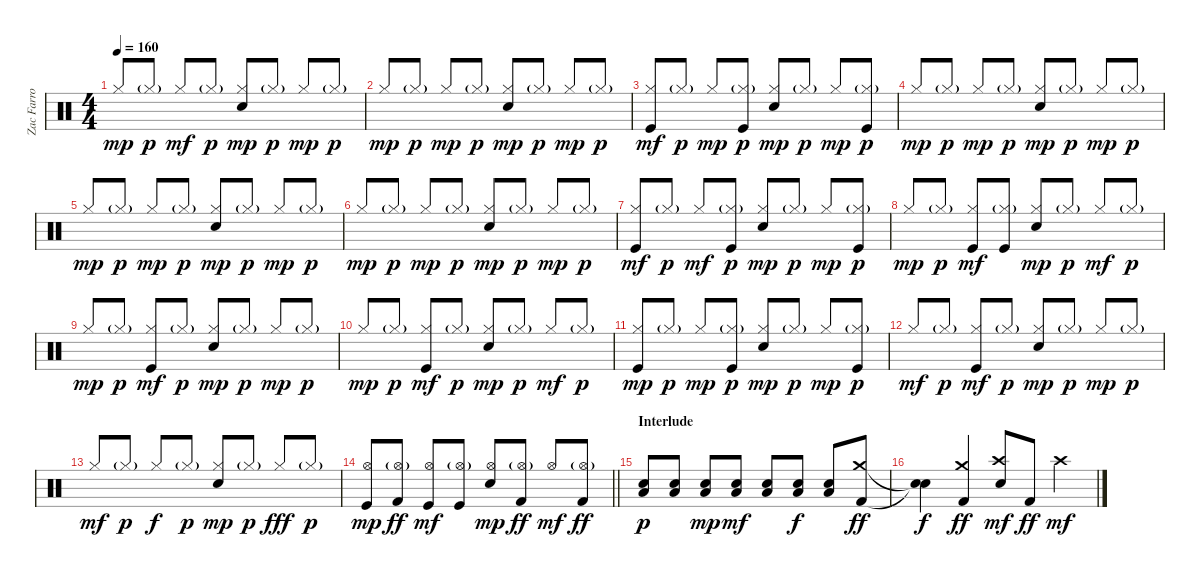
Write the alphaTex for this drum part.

\track ("Zac Farro" "Zac Farro") {instrument percussion}
\staff {score}
\articulation defaults
\ts (4 4)
\tempo 160
\clef neutral
\ks c "Hi-Hat (closed)".8{dy mp beam Up} "Hi-Hat (closed)"{g}.8{dy p beam Up} "Hi-Hat (closed)".8{dy mf beam Up} "Hi-Hat (closed)"{g}.8{dy p beam Up}
("Hi-Hat (closed)" "Electric Snare (hit)").8{dy mp beam Up} "Hi-Hat (closed)"{g}.8{dy p beam Up} "Hi-Hat (closed)".8{dy mp beam Up} "Hi-Hat (closed)"{g}.8{dy p beam Up} |
"Hi-Hat (closed)".8{dy mp beam Up} "Hi-Hat (closed)"{g}.8{dy p beam Up} "Hi-Hat (closed)".8{dy mp beam Up} "Hi-Hat (closed)"{g}.8{dy p beam Up} ("Hi-Hat (closed)" "Electric Snare (hit)").8{dy mp beam Up} "Hi-Hat (closed)"{g}.8{dy p beam Up} "Hi-Hat (closed)".8{dy mp beam Up} "Hi-Hat (closed)"{g}.8{dy p beam Up} |
("Hi-Hat (closed)" "Kick (hit)").8{dy mf beam Up} "Hi-Hat (closed)"{g}.8{dy p beam Up} "Hi-Hat (closed)".8{dy mp beam Up} ("Hi-Hat (closed)"{g} "Kick (hit)").8{dy p beam Up} ("Hi-Hat (closed)" "Electric Snare (hit)").8{dy mp beam Up} "Hi-Hat (closed)"{g}.8{dy p beam Up} "Hi-Hat (closed)".8{dy mp beam Up} ("Hi-Hat (closed)"{g} "Kick (hit)").8{dy p beam Up} |
"Hi-Hat (closed)".8{dy mp beam Up} "Hi-Hat (closed)"{g}.8{dy p beam Up} "Hi-Hat (closed)".8{dy mp beam Up} "Hi-Hat (closed)"{g}.8{dy p beam Up} ("Hi-Hat (closed)" "Electric Snare (hit)").8{dy mp beam Up} "Hi-Hat (closed)"{g}.8{dy p beam Up} "Hi-Hat (closed)".8{dy mp beam Up} "Hi-Hat (closed)"{g}.8{dy p beam Up} |
"Hi-Hat (closed)".8{dy mp beam Up} "Hi-Hat (closed)"{g}.8{dy p beam Up} "Hi-Hat (closed)".8{dy mp beam Up} "Hi-Hat (closed)"{g}.8{dy p beam Up} ("Hi-Hat (closed)" "Electric Snare (hit)").8{dy mp beam Up} "Hi-Hat (closed)"{g}.8{dy p beam Up} "Hi-Hat (closed)".8{dy mp beam Up} "Hi-Hat (closed)"{g}.8{dy p beam Up} |
"Hi-Hat (closed)".8{dy mp beam Up} "Hi-Hat (closed)"{g}.8{dy p beam Up} "Hi-Hat (closed)".8{dy mp beam Up} "Hi-Hat (closed)"{g}.8{dy p beam Up} ("Hi-Hat (closed)" "Electric Snare (hit)").8{dy mp beam Up} "Hi-Hat (closed)"{g}.8{dy p beam Up} "Hi-Hat (closed)".8{dy mp beam Up} "Hi-Hat (closed)"{g}.8{dy p beam Up} |
("Hi-Hat (closed)" "Kick (hit)").8{dy mf beam Up} "Hi-Hat (closed)"{g}.8{dy p beam Up} "Hi-Hat (closed)".8{dy mf beam Up} ("Hi-Hat (closed)"{g} "Kick (hit)").8{dy p beam Up} ("Hi-Hat (closed)" "Electric Snare (hit)").8{dy mp beam Up} "Hi-Hat (closed)"{g}.8{dy p beam Up} "Hi-Hat (closed)".8{dy mp beam Up} ("Hi-Hat (closed)"{g} "Kick (hit)").8{dy p beam Up} |
"Hi-Hat (closed)".8{dy mp beam Up} "Hi-Hat (closed)"{g}.8{dy p beam Up} ("Hi-Hat (closed)" "Kick (hit)").8{dy mf beam Up} ("Hi-Hat (closed)"{g} "Kick (hit)").8{beam Up} ("Hi-Hat (closed)" "Electric Snare (hit)").8{dy mp beam Up} "Hi-Hat (closed)"{g}.8{dy p beam Up} "Hi-Hat (closed)".8{dy mf beam Up} "Hi-Hat (closed)"{g}.8{dy p beam Up} |
"Hi-Hat (closed)".8{dy mp beam Up} "Hi-Hat (closed)"{g}.8{dy p beam Up} ("Hi-Hat (closed)" "Kick (hit)").8{dy mf beam Up} "Hi-Hat (closed)"{g}.8{dy p beam Up} ("Hi-Hat (closed)" "Electric Snare (hit)").8{dy mp beam Up} "Hi-Hat (closed)"{g}.8{dy p beam Up} "Hi-Hat (closed)".8{dy mp beam Up} "Hi-Hat (closed)"{g}.8{dy p beam Up} |
"Hi-Hat (closed)".8{dy mp beam Up} "Hi-Hat (closed)"{g}.8{dy p beam Up} ("Hi-Hat (closed)" "Kick (hit)").8{dy mf beam Up} "Hi-Hat (closed)"{g}.8{dy p beam Up} ("Hi-Hat (closed)" "Electric Snare (hit)").8{dy mp beam Up} "Hi-Hat (closed)"{g}.8{dy p beam Up} "Hi-Hat (closed)".8{dy mf beam Up} "Hi-Hat (closed)"{g}.8{dy p beam Up} |
("Hi-Hat (closed)" "Kick (hit)").8{dy mp beam Up} "Hi-Hat (closed)"{g}.8{dy p beam Up} "Hi-Hat (closed)".8{dy mp beam Up} ("Hi-Hat (closed)"{g} "Kick (hit)").8{dy p beam Up} ("Hi-Hat (closed)" "Electric Snare (hit)").8{dy mp beam Up} "Hi-Hat (closed)"{g}.8{dy p beam Up} "Hi-Hat (closed)".8{dy mp beam Up} ("Hi-Hat (closed)"{g} "Kick (hit)").8{dy p beam Up} |
"Hi-Hat (closed)".8{dy mf beam Up} "Hi-Hat (closed)"{g}.8{dy p beam Up} ("Hi-Hat (closed)" "Kick (hit)").8{dy mf beam Up} "Hi-Hat (closed)"{g}.8{dy p beam Up} ("Hi-Hat (closed)" "Electric Snare (hit)").8{dy mp beam Up} "Hi-Hat (closed)"{g}.8{dy p beam Up} "Hi-Hat (closed)".8{dy mp beam Up} "Hi-Hat (closed)"{g}.8{dy p beam Up} |
"Hi-Hat (closed)".8{dy mf beam Up} "Hi-Hat (closed)"{g}.8{dy p beam Up} "Hi-Hat (closed)".8{dy f beam Up} "Hi-Hat (closed)"{g}.8{dy p beam Up} ("Hi-Hat (closed)" "Electric Snare (hit)").8{dy mp beam Up} "Hi-Hat (closed)"{g}.8{dy p beam Up} "Hi-Hat (closed)".8{dy fff beam Up} "Hi-Hat (closed)"{g}.8{dy p} |
\barLineRight lightlight
("Hi-Hat (open)" "Kick (hit)").8{dy mp beam Up} ("Hi-Hat (open)"{g} "Kick (hit) 2").8{dy ff beam Up} ("Hi-Hat (open)" "Kick (hit)").8{dy mf beam Up} ("Hi-Hat (open)"{g} "Kick (hit)").8{beam Up} ("Hi-Hat (open)" "Electric Snare (hit)").8{dy mp beam Up} ("Hi-Hat (open)"{g} "Kick (hit) 2").8{dy ff beam Up} "Hi-Hat (open)".8{dy mf beam Up} ("Hi-Hat (open)"{g} "Kick (hit) 2").8{dy ff beam Up} |
\section ("" "Interlude")
("Snare (hit) 2" "Low Tom (hit)").8{dy p beam Up} ("Snare (hit) 2" "Low Tom (hit)").8{beam Up} ("Snare (hit) 2" "Low Tom (hit)").8{dy mp beam Up} ("Snare (hit) 2" "Low Tom (hit)").8{dy mf beam Up} ("Snare (hit) 2" "Low Tom (hit)").8{beam Up} ("Snare (hit) 2" "Low Tom (hit)").8{dy f beam Up} ("Snare (hit) 2" "Low Tom (hit)").8{beam Up} ("Crash medium (hit)" "Kick (hit) 2").8{dy ff beam Up} |
("Snare (hit)"{t} "Snare (hit)"{t}).4{dy f} ("Crash medium (hit)" "Kick (hit) 2").4{dy ff beam Up} ("Crash high (hit)" "Snare (hit) 2").8{dy mf beam Up} "Kick (hit) 2".8{dy ff beam Up} "Crash high (hit)".4{dy mf}
